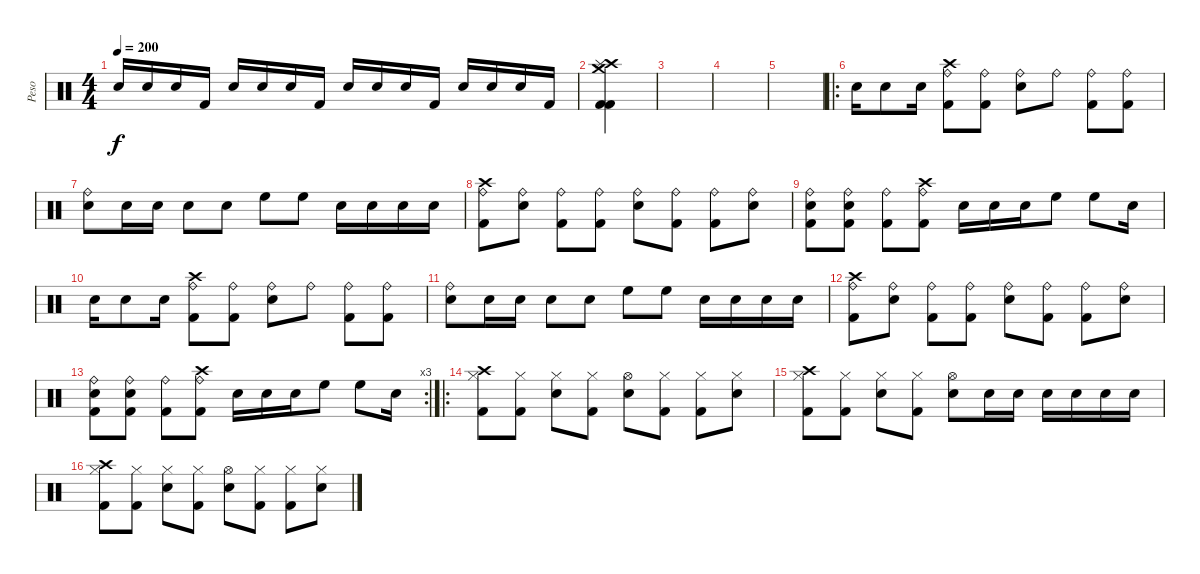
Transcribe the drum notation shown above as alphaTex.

\track ("Peso" "Peso") {instrument percussion}
\staff {score}
\articulation defaults
\ts (4 4)
\tempo 200
\clef neutral
\ks c "Snare (hit) 2".16{dy f} "Snare (hit) 2".16 "Snare (hit) 2".16 "Kick (hit) 2".16 "Snare (hit) 2".16 "Snare (hit) 2".16 "Snare (hit) 2".16 "Kick (hit) 2".16 "Snare (hit) 2".16 "Snare (hit) 2".16 "Snare (hit) 2".16 "Kick (hit) 2".16 "Snare (hit) 2".16 "Snare (hit) 2".16 "Snare (hit) 2".16 "Kick (hit) 2".16
|
("Crash high (hit)" "Crash medium (hit)" "Splash (hit)" "Kick (hit) 2" "Kick (hit) 2").4 |
|
|
|
\ro "Snare (hit) 2".16 "Snare (hit) 2".8 "Snare (hit)"{x}.16
("Crash high (hit)" "Ride (bell)" "Kick (hit) 2").8 ("Ride (bell)" "Kick (hit) 2").8 ("Ride (bell)" "Snare (hit) 2").8 "Ride (bell)".8 ("Ride (bell)" "Kick (hit) 2").8 ("Ride (bell)" "Kick (hit) 2").8 |
("Ride (bell)" "Snare (hit) 2").8 "Snare (hit) 2".16 "Snare (hit) 2".16 "Snare (hit) 2".8 "Snare (hit) 2".8 "High Floor Tom (hit)".8 "High Floor Tom (hit)".8 "Snare (hit) 2".16 "Snare (hit) 2".16 "Snare (hit) 2".16 "Snare (hit) 2".16 |
("Crash high (hit)" "Ride (bell)" "Kick (hit) 2").8 ("Ride (bell)" "Snare (hit) 2").8 ("Ride (bell)" "Kick (hit) 2").8 ("Ride (bell)" "Kick (hit) 2").8 ("Ride (bell)" "Snare (hit) 2").8 ("Ride (bell)" "Kick (hit) 2").8 ("Ride (bell)" "Kick (hit) 2").8 ("Ride (bell)" "Snare (hit) 2").8 |
("Ride (bell)" "Snare (hit) 2" "Kick (hit) 2").8 ("Ride (bell)" "Snare (hit) 2" "Kick (hit) 2").8 ("Ride (bell)" "Kick (hit) 2").8 ("Crash high (hit)" "Ride (bell)" "Kick (hit) 2").8 "Snare (hit) 2".16 "Snare (hit) 2".16 "Snare (hit) 2".16 "High Floor Tom (hit)".8 "High Floor Tom (hit)".8 "Snare (hit) 2".16 |
"Snare (hit) 2".16 "Snare (hit) 2".8 "Snare (hit)"{x}.16 ("Crash high (hit)" "Ride (bell)" "Kick (hit) 2").8 ("Ride (bell)" "Kick (hit) 2").8 ("Ride (bell)" "Snare (hit) 2").8 "Ride (bell)".8 ("Ride (bell)" "Kick (hit) 2").8 ("Ride (bell)" "Kick (hit) 2").8 |
("Ride (bell)" "Snare (hit) 2").8 "Snare (hit) 2".16 "Snare (hit) 2".16 "Snare (hit) 2".8 "Snare (hit) 2".8 "High Floor Tom (hit)".8 "High Floor Tom (hit)".8 "Snare (hit) 2".16 "Snare (hit) 2".16 "Snare (hit) 2".16 "Snare (hit) 2".16 |
("Crash high (hit)" "Ride (bell)" "Kick (hit) 2").8 ("Ride (bell)" "Snare (hit) 2").8 ("Ride (bell)" "Kick (hit) 2").8 ("Ride (bell)" "Kick (hit) 2").8 ("Ride (bell)" "Snare (hit) 2").8 ("Ride (bell)" "Kick (hit) 2").8 ("Ride (bell)" "Kick (hit) 2").8 ("Ride (bell)" "Snare (hit) 2").8 |
\rc 3
("Ride (bell)" "Snare (hit) 2" "Kick (hit) 2").8 ("Ride (bell)" "Snare (hit) 2" "Kick (hit) 2").8 ("Ride (bell)" "Kick (hit) 2").8 ("Crash high (hit)" "Ride (bell)" "Kick (hit) 2").8 "Snare (hit) 2".16 "Snare (hit) 2".16 "Snare (hit) 2".16 "High Floor Tom (hit)".8 "High Floor Tom (hit)".8 "Snare (hit) 2".16 |
\ro
("Crash high (hit)" "Hi-Hat (closed)" "Kick (hit) 2").8 ("Hi-Hat (closed)" "Kick (hit) 2").8 ("Hi-Hat (closed)" "Snare (hit) 2").8 ("Hi-Hat (closed)" "Kick (hit) 2").8 ("Hi-Hat (open)" "Snare (hit) 2").8 ("Hi-Hat (closed)" "Kick (hit) 2").8 ("Hi-Hat (closed)" "Kick (hit) 2").8 ("Hi-Hat (closed)" "Snare (hit) 2").8 |
("Crash high (hit)" "Hi-Hat (closed)" "Kick (hit) 2").8 ("Hi-Hat (closed)" "Kick (hit) 2").8 ("Hi-Hat (closed)" "Snare (hit) 2").8 ("Hi-Hat (closed)" "Kick (hit) 2").8 ("Hi-Hat (open)" "Snare (hit) 2").8 "Snare (hit) 2".16 "Snare (hit) 2".16 "Snare (hit) 2".16 "Snare (hit) 2".16 "Snare (hit) 2".16 "Snare (hit) 2".16 |
("Crash high (hit)" "Hi-Hat (closed)" "Kick (hit) 2").8 ("Hi-Hat (closed)" "Kick (hit) 2").8 ("Hi-Hat (closed)" "Snare (hit) 2").8 ("Hi-Hat (closed)" "Kick (hit) 2").8 ("Hi-Hat (open)" "Snare (hit) 2").8 ("Hi-Hat (closed)" "Kick (hit) 2").8 ("Hi-Hat (closed)" "Kick (hit) 2").8 ("Hi-Hat (closed)" "Snare (hit) 2").8
